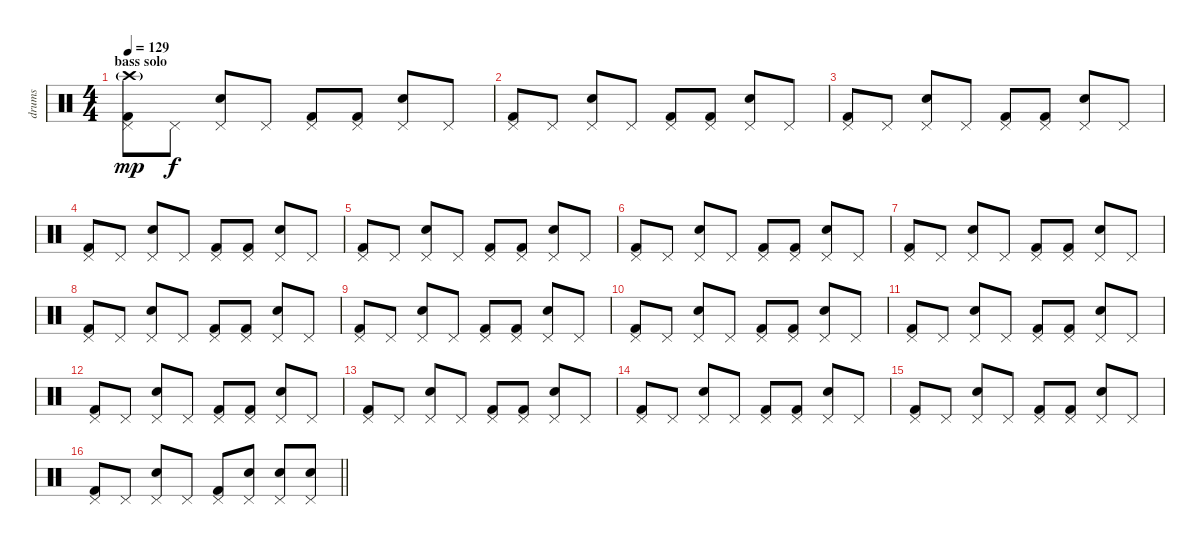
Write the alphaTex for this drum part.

\track ("drums" "drums") {instrument percussion}
\staff {score}
\articulation defaults
\ts (4 4)
\section ("" "bass solo")
\tempo 129
\clef neutral
\ks c
("Kick (hit) 2" "Pedal Hi-Hat (hit)" "Crash high (hit)"{g}).8{dy mp} "Pedal Hi-Hat (hit)".8{dy f} ("Electric Snare (hit)" "Pedal Hi-Hat (hit)").8 "Pedal Hi-Hat (hit)".8 ("Kick (hit) 2" "Pedal Hi-Hat (hit)").8 ("Kick (hit) 2" "Pedal Hi-Hat (hit)").8 ("Electric Snare (hit)" "Pedal Hi-Hat (hit)").8 "Pedal Hi-Hat (hit)".8 |
("Kick (hit) 2" "Pedal Hi-Hat (hit)").8 "Pedal Hi-Hat (hit)".8 ("Electric Snare (hit)" "Pedal Hi-Hat (hit)").8 "Pedal Hi-Hat (hit)".8 ("Kick (hit) 2" "Pedal Hi-Hat (hit)").8 ("Kick (hit) 2" "Pedal Hi-Hat (hit)").8 ("Electric Snare (hit)" "Pedal Hi-Hat (hit)").8 "Pedal Hi-Hat (hit)".8 |
("Kick (hit) 2" "Pedal Hi-Hat (hit)").8 "Pedal Hi-Hat (hit)".8 ("Electric Snare (hit)" "Pedal Hi-Hat (hit)").8 "Pedal Hi-Hat (hit)".8 ("Kick (hit) 2" "Pedal Hi-Hat (hit)").8 ("Kick (hit) 2" "Pedal Hi-Hat (hit)").8 ("Electric Snare (hit)" "Pedal Hi-Hat (hit)").8 "Pedal Hi-Hat (hit)".8 |
("Kick (hit) 2" "Pedal Hi-Hat (hit)").8 "Pedal Hi-Hat (hit)".8 ("Electric Snare (hit)" "Pedal Hi-Hat (hit)").8 "Pedal Hi-Hat (hit)".8 ("Kick (hit) 2" "Pedal Hi-Hat (hit)").8 ("Kick (hit) 2" "Pedal Hi-Hat (hit)").8 ("Electric Snare (hit)" "Pedal Hi-Hat (hit)").8 "Pedal Hi-Hat (hit)".8 |
("Kick (hit) 2" "Pedal Hi-Hat (hit)").8 "Pedal Hi-Hat (hit)".8 ("Electric Snare (hit)" "Pedal Hi-Hat (hit)").8 "Pedal Hi-Hat (hit)".8 ("Kick (hit) 2" "Pedal Hi-Hat (hit)").8 ("Kick (hit) 2" "Pedal Hi-Hat (hit)").8 ("Electric Snare (hit)" "Pedal Hi-Hat (hit)").8 "Pedal Hi-Hat (hit)".8 |
("Kick (hit) 2" "Pedal Hi-Hat (hit)").8 "Pedal Hi-Hat (hit)".8 ("Electric Snare (hit)" "Pedal Hi-Hat (hit)").8 "Pedal Hi-Hat (hit)".8 ("Kick (hit) 2" "Pedal Hi-Hat (hit)").8 ("Kick (hit) 2" "Pedal Hi-Hat (hit)").8 ("Electric Snare (hit)" "Pedal Hi-Hat (hit)").8 "Pedal Hi-Hat (hit)".8 |
("Kick (hit) 2" "Pedal Hi-Hat (hit)").8 "Pedal Hi-Hat (hit)".8 ("Electric Snare (hit)" "Pedal Hi-Hat (hit)").8 "Pedal Hi-Hat (hit)".8 ("Kick (hit) 2" "Pedal Hi-Hat (hit)").8 ("Kick (hit) 2" "Pedal Hi-Hat (hit)").8 ("Electric Snare (hit)" "Pedal Hi-Hat (hit)").8 "Pedal Hi-Hat (hit)".8 |
("Kick (hit) 2" "Pedal Hi-Hat (hit)").8 "Pedal Hi-Hat (hit)".8 ("Electric Snare (hit)" "Pedal Hi-Hat (hit)").8 "Pedal Hi-Hat (hit)".8 ("Kick (hit) 2" "Pedal Hi-Hat (hit)").8 ("Kick (hit) 2" "Pedal Hi-Hat (hit)").8 ("Electric Snare (hit)" "Pedal Hi-Hat (hit)").8 "Pedal Hi-Hat (hit)".8 |
("Kick (hit) 2" "Pedal Hi-Hat (hit)").8 "Pedal Hi-Hat (hit)".8 ("Electric Snare (hit)" "Pedal Hi-Hat (hit)").8 "Pedal Hi-Hat (hit)".8 ("Kick (hit) 2" "Pedal Hi-Hat (hit)").8 ("Kick (hit) 2" "Pedal Hi-Hat (hit)").8 ("Electric Snare (hit)" "Pedal Hi-Hat (hit)").8 "Pedal Hi-Hat (hit)".8 |
("Kick (hit) 2" "Pedal Hi-Hat (hit)").8 "Pedal Hi-Hat (hit)".8 ("Electric Snare (hit)" "Pedal Hi-Hat (hit)").8 "Pedal Hi-Hat (hit)".8 ("Kick (hit) 2" "Pedal Hi-Hat (hit)").8 ("Kick (hit) 2" "Pedal Hi-Hat (hit)").8 ("Electric Snare (hit)" "Pedal Hi-Hat (hit)").8 "Pedal Hi-Hat (hit)".8 |
("Kick (hit) 2" "Pedal Hi-Hat (hit)").8 "Pedal Hi-Hat (hit)".8 ("Electric Snare (hit)" "Pedal Hi-Hat (hit)").8 "Pedal Hi-Hat (hit)".8 ("Kick (hit) 2" "Pedal Hi-Hat (hit)").8 ("Kick (hit) 2" "Pedal Hi-Hat (hit)").8 ("Electric Snare (hit)" "Pedal Hi-Hat (hit)").8 "Pedal Hi-Hat (hit)".8 |
("Kick (hit) 2" "Pedal Hi-Hat (hit)").8 "Pedal Hi-Hat (hit)".8 ("Electric Snare (hit)" "Pedal Hi-Hat (hit)").8 "Pedal Hi-Hat (hit)".8 ("Kick (hit) 2" "Pedal Hi-Hat (hit)").8 ("Kick (hit) 2" "Pedal Hi-Hat (hit)").8 ("Electric Snare (hit)" "Pedal Hi-Hat (hit)").8 "Pedal Hi-Hat (hit)".8 |
("Kick (hit) 2" "Pedal Hi-Hat (hit)").8 "Pedal Hi-Hat (hit)".8 ("Electric Snare (hit)" "Pedal Hi-Hat (hit)").8 "Pedal Hi-Hat (hit)".8 ("Kick (hit) 2" "Pedal Hi-Hat (hit)").8 ("Kick (hit) 2" "Pedal Hi-Hat (hit)").8 ("Electric Snare (hit)" "Pedal Hi-Hat (hit)").8 "Pedal Hi-Hat (hit)".8 |
("Kick (hit) 2" "Pedal Hi-Hat (hit)").8 "Pedal Hi-Hat (hit)".8 ("Electric Snare (hit)" "Pedal Hi-Hat (hit)").8 "Pedal Hi-Hat (hit)".8 ("Kick (hit) 2" "Pedal Hi-Hat (hit)").8 ("Kick (hit) 2" "Pedal Hi-Hat (hit)").8 ("Electric Snare (hit)" "Pedal Hi-Hat (hit)").8 "Pedal Hi-Hat (hit)".8 |
("Kick (hit) 2" "Pedal Hi-Hat (hit)").8 "Pedal Hi-Hat (hit)".8 ("Electric Snare (hit)" "Pedal Hi-Hat (hit)").8 "Pedal Hi-Hat (hit)".8 ("Kick (hit) 2" "Pedal Hi-Hat (hit)").8 ("Kick (hit) 2" "Pedal Hi-Hat (hit)").8 ("Electric Snare (hit)" "Pedal Hi-Hat (hit)").8 "Pedal Hi-Hat (hit)".8 |
\barLineRight lightlight
("Kick (hit) 2" "Pedal Hi-Hat (hit)").8 "Pedal Hi-Hat (hit)".8 ("Electric Snare (hit)" "Pedal Hi-Hat (hit)").8 "Pedal Hi-Hat (hit)".8 ("Kick (hit) 2" "Pedal Hi-Hat (hit)").8 ("Electric Snare (hit)" "Pedal Hi-Hat (hit)").8 ("Electric Snare (hit)" "Pedal Hi-Hat (hit)").8 ("Electric Snare (hit)" "Pedal Hi-Hat (hit)").8
